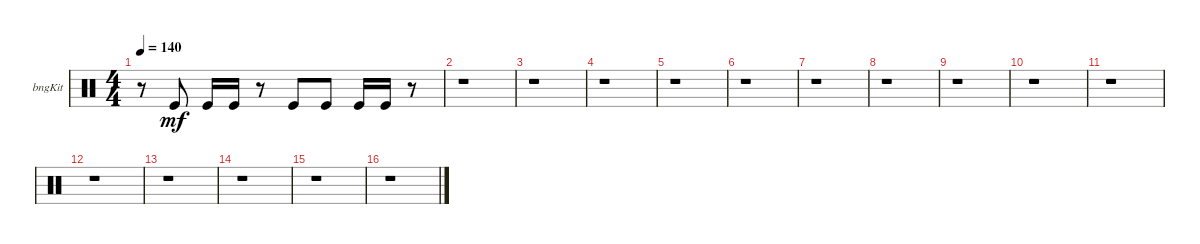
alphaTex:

\defaultSystemsLayout 4
\bracketExtendMode groupsimilarinstruments
\firstSystemTrackNameOrientation horizontal
\otherSystemsTrackNameOrientation horizontal
\track ("Bongos" "bngKit") {instrument percussion}
\staff {score}
\articulation defaults
\ts (4 4)
\tempo 140
\clef neutral
\ks c
r.8{dy mf} "Kick (hit)".8 "Kick (hit)".16 "Kick (hit)".16 r.8 "Kick (hit)".8 "Kick (hit)".8 "Kick (hit)".16 "Kick (hit)".16 r.8 |
\scale
0.333333 r.1 |
\scale
0.333333 r.1 |
\scale
0.333333 r.1 |
\scale
0.333333 r.1 |
\scale
0.333333 r.1 |
\scale
0.333333 r.1 |
\scale
0.333333 r.1 |
\scale
0.333333 r.1 |
\scale
0.333333 r.1 |
\scale
0.333333 r.1 |
\scale
0.333333 r.1 |
\scale
0.333333 r.1 |
\scale
0.333333 r.1 |
\scale
0.333333 r.1 |
\scale
0.333333 r.1
